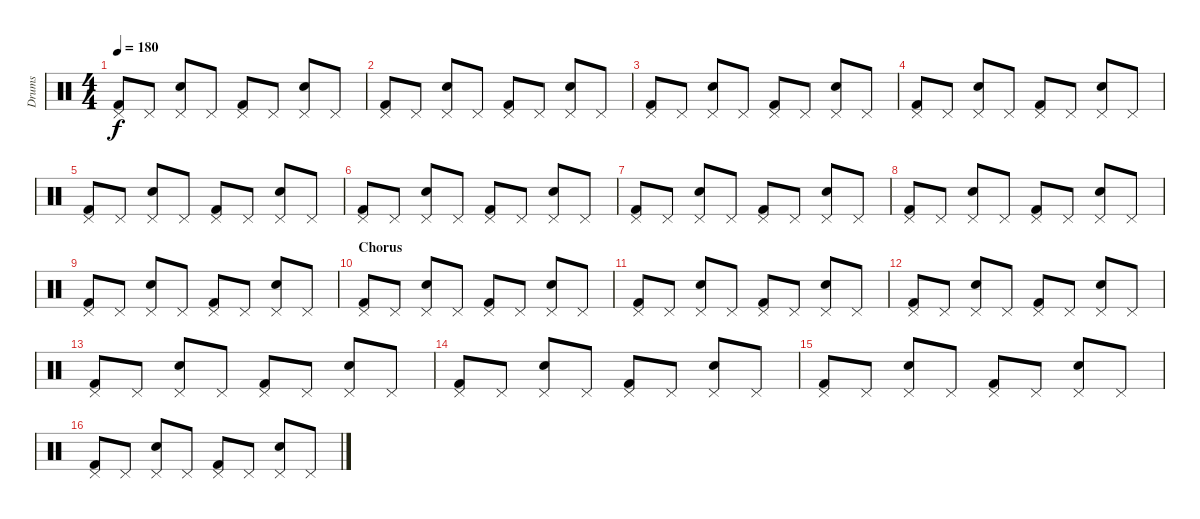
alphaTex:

\track ("Drums" "Drums") {instrument percussion}
\staff {score}
\articulation defaults
\ts (4 4)
\tempo 180
\clef neutral
\ks c
("Pedal Hi-Hat (hit)" "Kick (hit) 2").8{dy f} "Pedal Hi-Hat (hit)".8 ("Pedal Hi-Hat (hit)" "Electric Snare (hit)").8 "Pedal Hi-Hat (hit)".8 ("Pedal Hi-Hat (hit)" "Kick (hit) 2").8 "Pedal Hi-Hat (hit)".8 ("Pedal Hi-Hat (hit)" "Electric Snare (hit)").8 "Pedal Hi-Hat (hit)".8 |
("Pedal Hi-Hat (hit)" "Kick (hit) 2").8 "Pedal Hi-Hat (hit)".8 ("Pedal Hi-Hat (hit)" "Electric Snare (hit)").8 "Pedal Hi-Hat (hit)".8 ("Pedal Hi-Hat (hit)" "Kick (hit) 2").8 "Pedal Hi-Hat (hit)".8 ("Pedal Hi-Hat (hit)" "Electric Snare (hit)").8 "Pedal Hi-Hat (hit)".8 |
("Pedal Hi-Hat (hit)" "Kick (hit) 2").8 "Pedal Hi-Hat (hit)".8 ("Pedal Hi-Hat (hit)" "Electric Snare (hit)").8 "Pedal Hi-Hat (hit)".8 ("Pedal Hi-Hat (hit)" "Kick (hit) 2").8 "Pedal Hi-Hat (hit)".8 ("Pedal Hi-Hat (hit)" "Electric Snare (hit)").8 "Pedal Hi-Hat (hit)".8 |
("Pedal Hi-Hat (hit)" "Kick (hit) 2").8 "Pedal Hi-Hat (hit)".8 ("Pedal Hi-Hat (hit)" "Electric Snare (hit)").8 "Pedal Hi-Hat (hit)".8 ("Pedal Hi-Hat (hit)" "Kick (hit) 2").8 "Pedal Hi-Hat (hit)".8 ("Pedal Hi-Hat (hit)" "Electric Snare (hit)").8 "Pedal Hi-Hat (hit)".8 |
("Pedal Hi-Hat (hit)" "Kick (hit) 2").8 "Pedal Hi-Hat (hit)".8 ("Pedal Hi-Hat (hit)" "Electric Snare (hit)").8 "Pedal Hi-Hat (hit)".8 ("Pedal Hi-Hat (hit)" "Kick (hit) 2").8 "Pedal Hi-Hat (hit)".8 ("Pedal Hi-Hat (hit)" "Electric Snare (hit)").8 "Pedal Hi-Hat (hit)".8 |
("Pedal Hi-Hat (hit)" "Kick (hit) 2").8 "Pedal Hi-Hat (hit)".8 ("Pedal Hi-Hat (hit)" "Electric Snare (hit)").8 "Pedal Hi-Hat (hit)".8 ("Pedal Hi-Hat (hit)" "Kick (hit) 2").8 "Pedal Hi-Hat (hit)".8 ("Pedal Hi-Hat (hit)" "Electric Snare (hit)").8 "Pedal Hi-Hat (hit)".8 |
("Pedal Hi-Hat (hit)" "Kick (hit) 2").8 "Pedal Hi-Hat (hit)".8 ("Pedal Hi-Hat (hit)" "Electric Snare (hit)").8 "Pedal Hi-Hat (hit)".8 ("Pedal Hi-Hat (hit)" "Kick (hit) 2").8 "Pedal Hi-Hat (hit)".8 ("Pedal Hi-Hat (hit)" "Electric Snare (hit)").8 "Pedal Hi-Hat (hit)".8 |
("Pedal Hi-Hat (hit)" "Kick (hit) 2").8 "Pedal Hi-Hat (hit)".8 ("Pedal Hi-Hat (hit)" "Electric Snare (hit)").8 "Pedal Hi-Hat (hit)".8 ("Pedal Hi-Hat (hit)" "Kick (hit) 2").8 "Pedal Hi-Hat (hit)".8 ("Pedal Hi-Hat (hit)" "Electric Snare (hit)").8 "Pedal Hi-Hat (hit)".8 |
("Pedal Hi-Hat (hit)" "Kick (hit) 2").8 "Pedal Hi-Hat (hit)".8 ("Pedal Hi-Hat (hit)" "Electric Snare (hit)").8 "Pedal Hi-Hat (hit)".8 ("Pedal Hi-Hat (hit)" "Kick (hit) 2").8 "Pedal Hi-Hat (hit)".8 ("Pedal Hi-Hat (hit)" "Electric Snare (hit)").8 "Pedal Hi-Hat (hit)".8 |
\section ("" "Chorus")
("Pedal Hi-Hat (hit)" "Kick (hit) 2").8 "Pedal Hi-Hat (hit)".8 ("Pedal Hi-Hat (hit)" "Electric Snare (hit)").8 "Pedal Hi-Hat (hit)".8 ("Pedal Hi-Hat (hit)" "Kick (hit) 2").8 "Pedal Hi-Hat (hit)".8 ("Pedal Hi-Hat (hit)" "Electric Snare (hit)").8 "Pedal Hi-Hat (hit)".8 |
("Pedal Hi-Hat (hit)" "Kick (hit) 2").8 "Pedal Hi-Hat (hit)".8 ("Pedal Hi-Hat (hit)" "Electric Snare (hit)").8 "Pedal Hi-Hat (hit)".8 ("Pedal Hi-Hat (hit)" "Kick (hit) 2").8 "Pedal Hi-Hat (hit)".8 ("Pedal Hi-Hat (hit)" "Electric Snare (hit)").8 "Pedal Hi-Hat (hit)".8 |
("Pedal Hi-Hat (hit)" "Kick (hit) 2").8 "Pedal Hi-Hat (hit)".8 ("Pedal Hi-Hat (hit)" "Electric Snare (hit)").8 "Pedal Hi-Hat (hit)".8 ("Pedal Hi-Hat (hit)" "Kick (hit) 2").8 "Pedal Hi-Hat (hit)".8 ("Pedal Hi-Hat (hit)" "Electric Snare (hit)").8 "Pedal Hi-Hat (hit)".8 |
("Pedal Hi-Hat (hit)" "Kick (hit) 2").8 "Pedal Hi-Hat (hit)".8 ("Pedal Hi-Hat (hit)" "Electric Snare (hit)").8 "Pedal Hi-Hat (hit)".8 ("Pedal Hi-Hat (hit)" "Kick (hit) 2").8 "Pedal Hi-Hat (hit)".8 ("Pedal Hi-Hat (hit)" "Electric Snare (hit)").8 "Pedal Hi-Hat (hit)".8 |
("Pedal Hi-Hat (hit)" "Kick (hit) 2").8 "Pedal Hi-Hat (hit)".8 ("Pedal Hi-Hat (hit)" "Electric Snare (hit)").8 "Pedal Hi-Hat (hit)".8 ("Pedal Hi-Hat (hit)" "Kick (hit) 2").8 "Pedal Hi-Hat (hit)".8 ("Pedal Hi-Hat (hit)" "Electric Snare (hit)").8 "Pedal Hi-Hat (hit)".8 |
("Pedal Hi-Hat (hit)" "Kick (hit) 2").8 "Pedal Hi-Hat (hit)".8 ("Pedal Hi-Hat (hit)" "Electric Snare (hit)").8 "Pedal Hi-Hat (hit)".8 ("Pedal Hi-Hat (hit)" "Kick (hit) 2").8 "Pedal Hi-Hat (hit)".8 ("Pedal Hi-Hat (hit)" "Electric Snare (hit)").8 "Pedal Hi-Hat (hit)".8 |
("Pedal Hi-Hat (hit)" "Kick (hit) 2").8 "Pedal Hi-Hat (hit)".8 ("Pedal Hi-Hat (hit)" "Electric Snare (hit)").8 "Pedal Hi-Hat (hit)".8 ("Pedal Hi-Hat (hit)" "Kick (hit) 2").8 "Pedal Hi-Hat (hit)".8 ("Pedal Hi-Hat (hit)" "Electric Snare (hit)").8 "Pedal Hi-Hat (hit)".8
